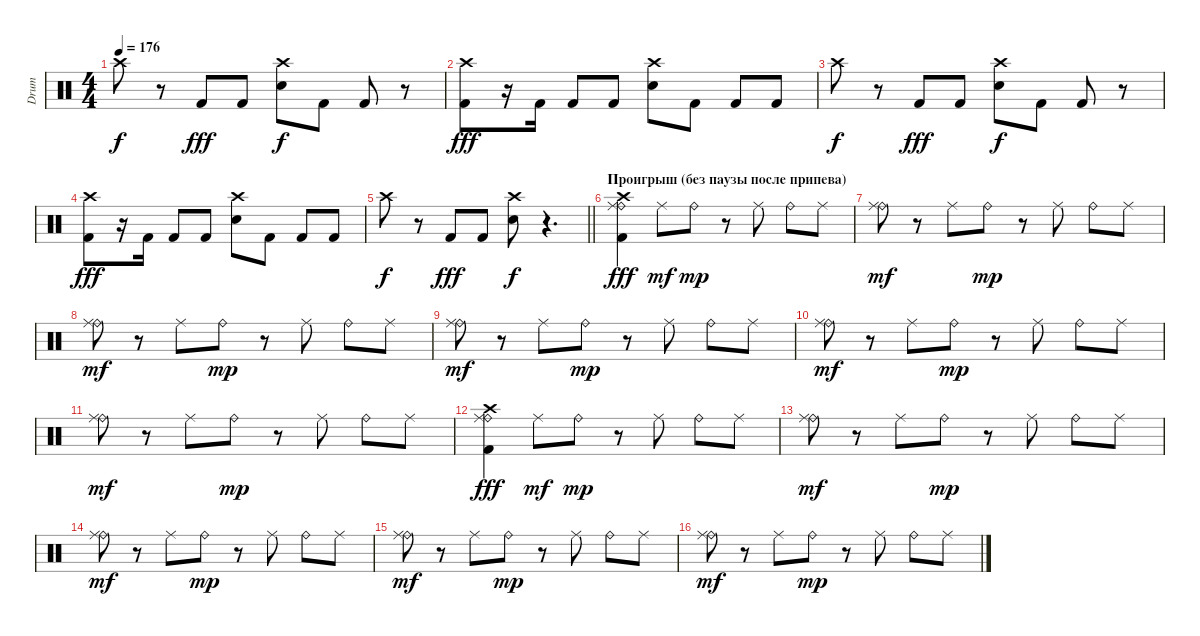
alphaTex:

\track ("Drum" "Drum") {instrument percussion}
\staff {score}
\articulation defaults
\ts (4 4)
\tempo 176
\clef neutral
\ks c "Crash high (hit)".8{dy f}
r.8 "Kick (hit) 2".8{dy fff} "Kick (hit) 2".8 ("Crash high (hit)" "Snare (hit) 2").8{dy f} "Kick (hit) 2".8 "Kick (hit) 2".8 r.8 |
("Kick (hit) 2" "Crash high (hit)").8{dy fff} r.16 "Kick (hit) 2".16 "Kick (hit) 2".8 "Kick (hit) 2".8 ("Snare (hit) 2" "Crash high (hit)").8 "Kick (hit) 2".8 "Kick (hit) 2".8 "Kick (hit) 2".8 |
"Crash high (hit)".8{dy f} r.8 "Kick (hit) 2".8{dy fff} "Kick (hit) 2".8 ("Crash high (hit)" "Snare (hit) 2").8{dy f} "Kick (hit) 2".8 "Kick (hit) 2".8 r.8 |
("Kick (hit) 2" "Crash high (hit)").8{dy fff} r.16 "Kick (hit) 2".16 "Kick (hit) 2".8 "Kick (hit) 2".8 ("Snare (hit) 2" "Crash high (hit)").8 "Kick (hit) 2".8 "Kick (hit) 2".8 "Kick (hit) 2".8 |
\barLineRight lightlight "Crash high (hit)".8{dy f}
r.8 "Kick (hit) 2".8{dy fff} "Kick (hit) 2".8 ("Crash high (hit)" "Snare (hit) 2").8{dy f} r.4{d} |
\section ("" "Проигрыш (без паузы после припева)")
("Ride (bell)" "Ride (middle)" "Crash high (hit)" "Kick (hit) 2").4{dy fff} "Ride (middle)".8{dy mf} "Ride (bell)".8{dy mp} r.8 "Ride (middle)".8 "Ride (bell)".8 "Ride (middle)".8 |
("Ride (bell)" "Ride (middle)").8{dy mf} r.8 "Ride (middle)".8 "Ride (bell)".8{dy mp} r.8 "Ride (middle)".8 "Ride (bell)".8 "Ride (middle)".8 |
("Ride (bell)" "Ride (middle)").8{dy mf} r.8 "Ride (middle)".8 "Ride (bell)".8{dy mp} r.8 "Ride (middle)".8 "Ride (bell)".8 "Ride (middle)".8 |
("Ride (bell)" "Ride (middle)").8{dy mf} r.8 "Ride (middle)".8 "Ride (bell)".8{dy mp} r.8 "Ride (middle)".8 "Ride (bell)".8 "Ride (middle)".8 |
("Ride (bell)" "Ride (middle)").8{dy mf} r.8 "Ride (middle)".8 "Ride (bell)".8{dy mp} r.8 "Ride (middle)".8 "Ride (bell)".8 "Ride (middle)".8 |
("Ride (bell)" "Ride (middle)").8{dy mf} r.8 "Ride (middle)".8 "Ride (bell)".8{dy mp} r.8 "Ride (middle)".8 "Ride (bell)".8 "Ride (middle)".8 |
("Ride (bell)" "Ride (middle)" "Crash high (hit)" "Kick (hit) 2").4{dy fff} "Ride (middle)".8{dy mf} "Ride (bell)".8{dy mp} r.8 "Ride (middle)".8 "Ride (bell)".8 "Ride (middle)".8 |
("Ride (bell)" "Ride (middle)").8{dy mf} r.8 "Ride (middle)".8 "Ride (bell)".8{dy mp} r.8 "Ride (middle)".8 "Ride (bell)".8 "Ride (middle)".8 |
("Ride (bell)" "Ride (middle)").8{dy mf} r.8 "Ride (middle)".8 "Ride (bell)".8{dy mp} r.8 "Ride (middle)".8 "Ride (bell)".8 "Ride (middle)".8 |
("Ride (bell)" "Ride (middle)").8{dy mf} r.8 "Ride (middle)".8 "Ride (bell)".8{dy mp} r.8 "Ride (middle)".8 "Ride (bell)".8 "Ride (middle)".8 |
("Ride (bell)" "Ride (middle)").8{dy mf} r.8 "Ride (middle)".8 "Ride (bell)".8{dy mp} r.8 "Ride (middle)".8 "Ride (bell)".8 "Ride (middle)".8
